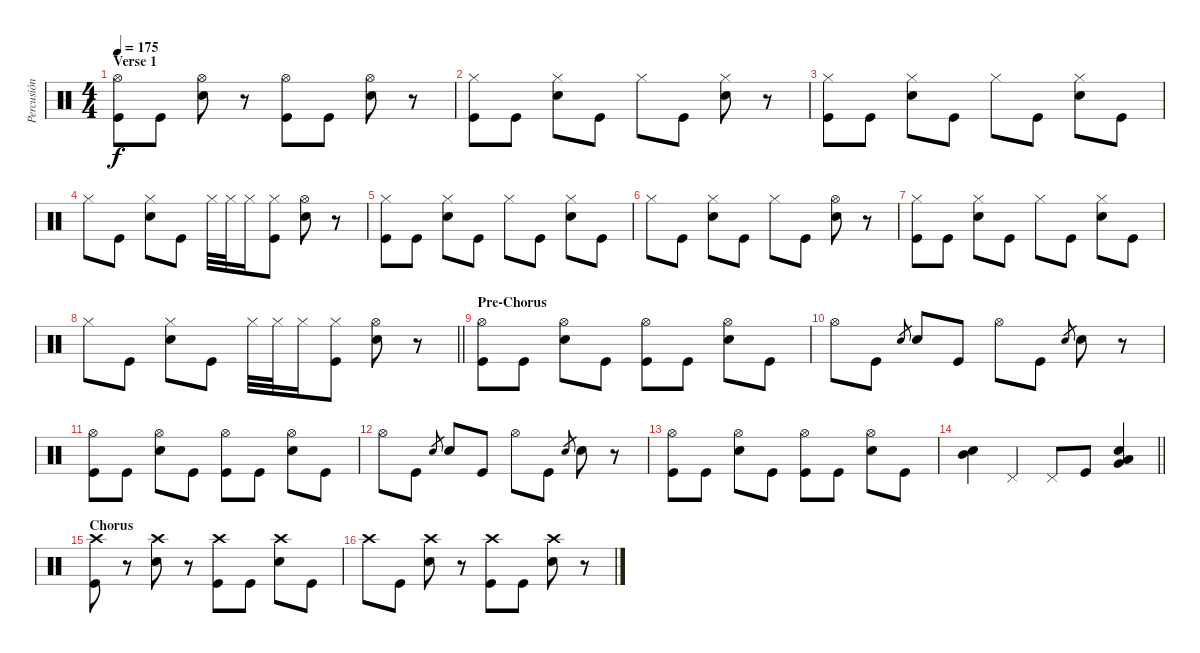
\track ("Percusión" "Percusión") {instrument percussion}
\staff {score}
\articulation defaults
\ts (4 4)
\section ("" "Verse 1")
\tempo 175
\clef neutral
\ks c
("Hi-Hat (open)" "Kick (hit)").8{dy f} "Kick (hit)".8 ("Hi-Hat (open)" "Snare (hit) 2").8 r.8 ("Hi-Hat (open)" "Kick (hit)").8 "Kick (hit)".8 ("Hi-Hat (open)" "Snare (hit) 2").8 r.8 |
("Hi-Hat (closed)" "Kick (hit)").8 "Kick (hit)".8 ("Hi-Hat (closed)" "Snare (hit) 2").8 "Kick (hit)".8 "Hi-Hat (closed)".8 "Kick (hit)".8 ("Hi-Hat (closed)" "Snare (hit) 2").8 r.8 |
("Hi-Hat (closed)" "Kick (hit)").8 "Kick (hit)".8 ("Hi-Hat (closed)" "Snare (hit) 2").8 "Kick (hit)".8 "Hi-Hat (closed)".8 "Kick (hit)".8 ("Hi-Hat (closed)" "Snare (hit) 2").8 "Kick (hit)".8 |
"Hi-Hat (closed)".8 "Kick (hit)".8 ("Hi-Hat (closed)" "Snare (hit) 2").8 "Kick (hit)".8 "Hi-Hat (closed)".32 "Hi-Hat (closed)".32 "Hi-Hat (closed)".16 ("Hi-Hat (closed)" "Kick (hit)").8 ("Hi-Hat (open)" "Snare (hit) 2").8 r.8 |
("Hi-Hat (closed)" "Kick (hit)").8 "Kick (hit)".8 ("Hi-Hat (closed)" "Snare (hit) 2").8 "Kick (hit)".8 "Hi-Hat (closed)".8 "Kick (hit)".8 ("Hi-Hat (closed)" "Snare (hit) 2").8 "Kick (hit)".8 |
"Hi-Hat (closed)".8 "Kick (hit)".8 ("Hi-Hat (closed)" "Snare (hit) 2").8 "Kick (hit)".8 "Hi-Hat (closed)".8 "Kick (hit)".8 ("Hi-Hat (open)" "Snare (hit) 2").8 r.8 |
("Hi-Hat (closed)" "Kick (hit)").8 "Kick (hit)".8 ("Hi-Hat (closed)" "Snare (hit) 2").8 "Kick (hit)".8 "Hi-Hat (closed)".8 "Kick (hit)".8 ("Hi-Hat (closed)" "Snare (hit) 2").8 "Kick (hit)".8 |
\barLineRight lightlight "Hi-Hat (closed)".8 "Kick (hit)".8
("Hi-Hat (closed)" "Snare (hit) 2").8 "Kick (hit)".8 "Hi-Hat (closed)".32 "Hi-Hat (closed)".32 "Hi-Hat (closed)".16 ("Hi-Hat (closed)" "Kick (hit)").8 ("Hi-Hat (open)" "Snare (hit) 2").8 r.8 |
\section ("" "Pre-Chorus")
("Hi-Hat (open)" "Kick (hit)").8 "Kick (hit)".8 ("Hi-Hat (open)" "Snare (hit) 2").8 "Kick (hit)".8 ("Hi-Hat (open)" "Kick (hit)").8 "Kick (hit)".8 ("Hi-Hat (open)" "Snare (hit) 2").8 "Kick (hit)".8 |
"Hi-Hat (open)".8 "Kick (hit)".8 "Snare (hit) 2".8{gr} "Snare (hit) 2".8 "Kick (hit)".8 "Hi-Hat (open)".8 "Kick (hit)".8 "Snare (hit) 2".8{gr} "Snare (hit) 2".8 r.8 |
("Hi-Hat (open)" "Kick (hit)").8 "Kick (hit)".8 ("Hi-Hat (open)" "Snare (hit) 2").8 "Kick (hit)".8 ("Hi-Hat (open)" "Kick (hit)").8 "Kick (hit)".8 ("Hi-Hat (open)" "Snare (hit) 2").8 "Kick (hit)".8 |
"Hi-Hat (open)".8 "Kick (hit)".8 "Snare (hit) 2".8{gr} "Snare (hit) 2".8 "Kick (hit)".8 "Hi-Hat (open)".8 "Kick (hit)".8 "Snare (hit) 2".8{gr} "Snare (hit) 2".8 r.8 |
("Hi-Hat (open)" "Kick (hit)").8 "Kick (hit)".8 ("Hi-Hat (open)" "Snare (hit) 2").8 "Kick (hit)".8 ("Hi-Hat (open)" "Kick (hit)").8 "Kick (hit)".8 ("Hi-Hat (open)" "Snare (hit) 2").8 "Kick (hit)".8 |
\barLineRight lightlight
("Mid Tom (hit)" "Snare (hit) 2").4 "Pedal Hi-Hat (hit)".4 "Pedal Hi-Hat (hit)".8 "Kick (hit)".8 ("Low Floor Tom (hit)" "Very Low Tom (hit)" "Snare (hit) 2").4 |
\section ("" "Chorus")
("Crash high (hit)" "Kick (hit)").8 r.8 ("Crash high (hit)" "Snare (hit) 2").8 r.8 ("Crash high (hit)" "Kick (hit)").8 "Kick (hit)".8 ("Crash high (hit)" "Snare (hit) 2").8 "Kick (hit)".8 |
"Crash high (hit)".8 "Kick (hit)".8 ("Crash high (hit)" "Snare (hit) 2").8 r.8 ("Crash high (hit)" "Kick (hit)").8 "Kick (hit)".8 ("Crash high (hit)" "Snare (hit) 2").8 r.8
